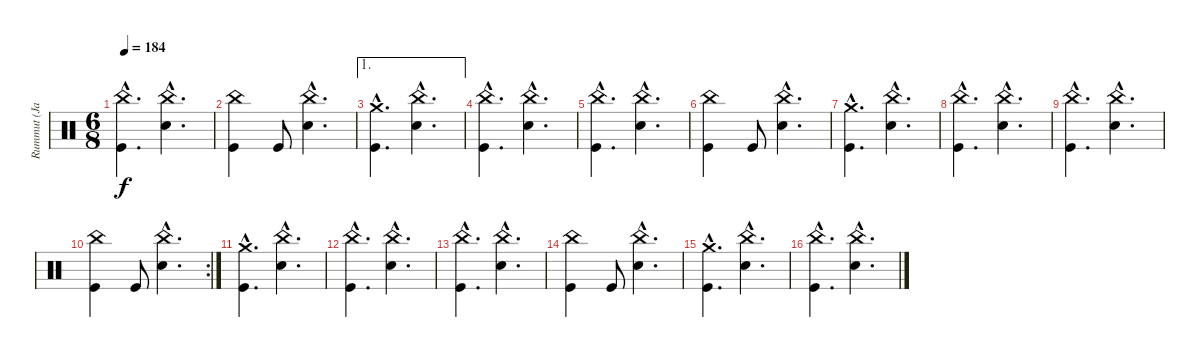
\track ("Rummut (Janne)" "Rummut (Ja") {instrument percussion}
\staff {score}
\articulation defaults
\ts (6 8)
\tempo 184
\clef neutral
\ks c
("China (hit)"{hac} "Kick (hit)"{hac}).4{d dy f} ("China (hit)"{hac} "Snare (hit) 2"{hac}).4{d} |
("China (hit)" "Kick (hit)").4 "Kick (hit)".8 ("China (hit)"{hac} "Snare (hit) 2"{hac}).4{d} |
\ae 1
("Crash medium (hit)"{hac} "Kick (hit)"{hac}).4{d} ("China (hit)"{hac} "Snare (hit) 2"{hac}).4{d} |
("China (hit)"{hac} "Kick (hit)"{hac}).4{d} ("China (hit)"{hac} "Snare (hit) 2"{hac}).4{d} |
("China (hit)"{hac} "Kick (hit)"{hac}).4{d} ("China (hit)"{hac} "Snare (hit) 2"{hac}).4{d} |
("China (hit)" "Kick (hit)").4 "Kick (hit)".8 ("China (hit)"{hac} "Snare (hit) 2"{hac}).4{d} |
("Crash medium (hit)"{hac} "Kick (hit)"{hac}).4{d} ("China (hit)"{hac} "Snare (hit) 2"{hac}).4{d} |
("China (hit)"{hac} "Kick (hit)"{hac}).4{d} ("China (hit)"{hac} "Snare (hit) 2"{hac}).4{d} |
("China (hit)"{hac} "Kick (hit)"{hac}).4{d} ("China (hit)"{hac} "Snare (hit) 2"{hac}).4{d} |
\rc 2
("China (hit)" "Kick (hit)").4 "Kick (hit)".8 ("China (hit)"{hac} "Snare (hit) 2"{hac}).4{d} |
("Crash medium (hit)"{hac} "Kick (hit)"{hac}).4{d} ("China (hit)"{hac} "Snare (hit) 2"{hac}).4{d} |
("China (hit)"{hac} "Kick (hit)"{hac}).4{d} ("China (hit)"{hac} "Snare (hit) 2"{hac}).4{d} |
("China (hit)"{hac} "Kick (hit)"{hac}).4{d} ("China (hit)"{hac} "Snare (hit) 2"{hac}).4{d} |
("China (hit)" "Kick (hit)").4 "Kick (hit)".8 ("China (hit)"{hac} "Snare (hit) 2"{hac}).4{d} |
("Crash medium (hit)"{hac} "Kick (hit)"{hac}).4{d} ("China (hit)"{hac} "Snare (hit) 2"{hac}).4{d} |
("China (hit)"{hac} "Kick (hit)"{hac}).4{d} ("China (hit)"{hac} "Snare (hit) 2"{hac}).4{d}
